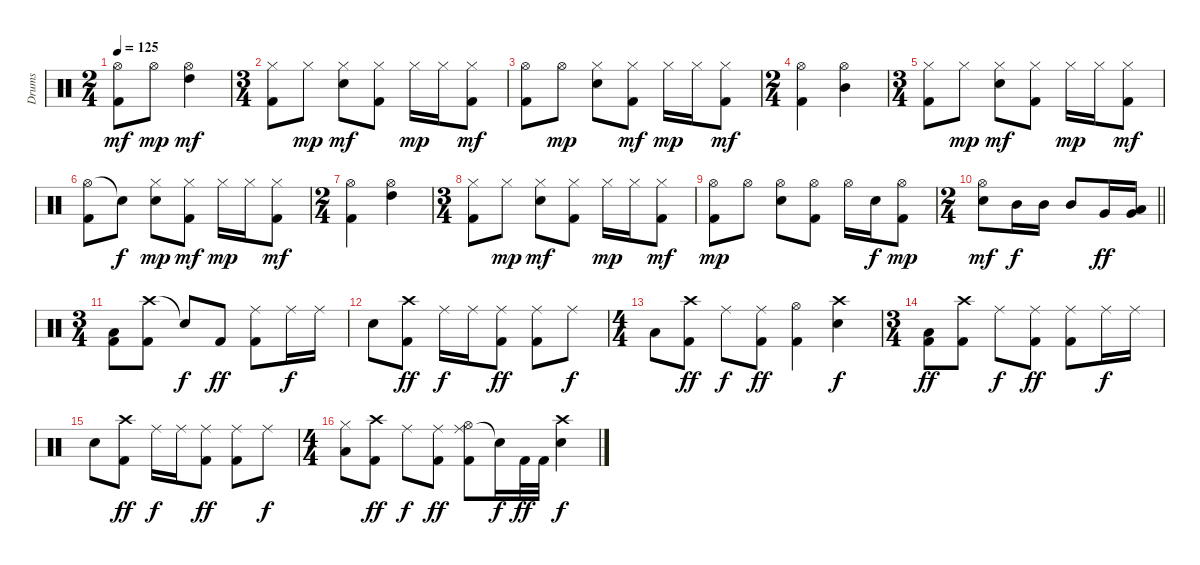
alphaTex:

\track ("Drums" "Drums") {instrument percussion}
\staff {score}
\articulation defaults
\ts (2 4)
\tempo 125
\clef neutral
\ks c
("Hi-Hat (open)" "Kick (hit) 2").8{dy mf} "Hi-Hat (open)".8{dy mp} ("Hi-Hat (open)" "High Tom (hit)").4{dy mf} |
\ts (3 4)
("Hi-Hat (closed)" "Kick (hit) 2").8 "Hi-Hat (closed)".8{dy mp} ("Hi-Hat (closed)" "Snare (hit) 2").8{dy mf} ("Hi-Hat (closed)" "Kick (hit) 2").8 "Hi-Hat (closed)".16{dy mp} "Hi-Hat (closed)".16 ("Hi-Hat (closed)" "Kick (hit) 2").8{dy mf} |
("Hi-Hat (open)" "Kick (hit) 2").8 "Hi-Hat (open)".8{dy mp} ("Hi-Hat (closed)" "Snare (hit) 2").8 ("Hi-Hat (closed)" "Kick (hit) 2").8{dy mf} "Hi-Hat (closed)".16{dy mp} "Hi-Hat (closed)".16 ("Hi-Hat (closed)" "Kick (hit) 2").8{dy mf} |
\ts (2 4)
("Hi-Hat (open)" "Kick (hit) 2").4 ("Hi-Hat (open)" "Mid Tom (hit)").4 |
\ts (3 4)
("Hi-Hat (closed)" "Kick (hit) 2").8 "Hi-Hat (closed)".8{dy mp} ("Hi-Hat (closed)" "Snare (hit) 2").8{dy mf} ("Hi-Hat (closed)" "Kick (hit) 2").8 "Hi-Hat (closed)".16{dy mp} "Hi-Hat (closed)".16 ("Hi-Hat (closed)" "Kick (hit) 2").8{dy mf} |
("Hi-Hat (open)" "Kick (hit) 2").8 "Snare (hit)"{t}.8{dy f} ("Hi-Hat (closed)" "Snare (hit) 2").8{dy mp} ("Hi-Hat (closed)" "Kick (hit) 2").8{dy mf} "Hi-Hat (closed)".16{dy mp} "Hi-Hat (closed)".16 ("Hi-Hat (closed)" "Kick (hit) 2").8{dy mf} |
\ts (2 4)
("Hi-Hat (open)" "Kick (hit) 2").4 ("Hi-Hat (open)" "High Tom (hit)").4 |
\ts (3 4)
("Hi-Hat (closed)" "Kick (hit) 2").8 "Hi-Hat (closed)".8{dy mp} ("Hi-Hat (closed)" "Snare (hit) 2").8{dy mf} ("Hi-Hat (closed)" "Kick (hit) 2").8 "Hi-Hat (closed)".16{dy mp} "Hi-Hat (closed)".16 ("Hi-Hat (closed)" "Kick (hit) 2").8{dy mf} |
("Hi-Hat (open)" "Kick (hit) 2").8{dy mp} "Hi-Hat (open)".8 ("Hi-Hat (open)" "Snare (hit) 2").8 ("Hi-Hat (open)" "Kick (hit) 2").8 "Hi-Hat (open)".16 "Snare (hit) 2".16{dy f} ("Hi-Hat (open)" "Kick (hit) 2").8{dy mp} |
\ts (2 4)
\barLineRight lightlight
("Hi-Hat (open)" "Snare (hit) 2").8{dy mf} "Mid Tom (hit)".16{dy f} "Mid Tom (hit)".16 "Mid Tom (hit)".8 "Very Low Tom (hit)".16{dy ff} ("Very Low Tom (hit)" "Low Floor Tom (hit)").16 |
\ts (3 4)
\section ("" "")
("Low Floor Tom (hit)" "Kick (hit) 2").8 ("Crash high (hit)" "Kick (hit) 2").8 "Snare (hit)"{t}.8{dy f} "Kick (hit) 2".8{dy ff} ("Ride (middle)" "Kick (hit) 2").8 "Ride (middle)".16{dy f} "Ride (middle)".16 |
"Snare (hit) 2".8 ("Crash high (hit)" "Kick (hit) 2").8{dy ff} "Ride (middle)".16{dy f} "Ride (middle)".16 ("Ride (middle)" "Kick (hit) 2").8{dy ff} ("Ride (middle)" "Kick (hit) 2").8 "Ride (middle)".8{dy f} |
\ts (4 4)
"Low Floor Tom (hit)".8 ("Crash high (hit)" "Kick (hit) 2").8{dy ff} "Ride (middle)".8{dy f} ("Ride (middle)" "Kick (hit) 2").8{dy ff} ("Hi-Hat (open)" "Kick (hit) 2").4 ("Crash high (hit)" "Snare (hit) 2").4{dy f} |
\ts (3 4)
("Low Floor Tom (hit)" "Kick (hit) 2").8{dy ff} ("Crash high (hit)" "Kick (hit) 2").8 "Ride (middle)".8{dy f} ("Ride (middle)" "Kick (hit) 2").8{dy ff} ("Ride (middle)" "Kick (hit) 2").8 "Ride (middle)".16{dy f} "Ride (middle)".16 |
"Snare (hit) 2".8 ("Crash high (hit)" "Kick (hit) 2").8{dy ff} "Ride (middle)".16{dy f} "Ride (middle)".16 ("Ride (middle)" "Kick (hit) 2").8{dy ff} ("Ride (middle)" "Kick (hit) 2").8 "Ride (middle)".8{dy f} |
\ts (4 4)
("Hi-Hat (closed)" "Low Floor Tom (hit)").8 ("Crash high (hit)" "Kick (hit) 2").8{dy ff} "Ride (middle)".8{dy f} ("Ride (middle)" "Kick (hit) 2").8{dy ff} ("Ride (middle)" "Hi-Hat (open)" "Kick (hit) 2").8 "Snare (hit)"{t}.16{dy f} "Kick (hit) 2".32{dy ff} "Kick (hit) 2".32 ("Crash high (hit)" "Snare (hit) 2").4{dy f}
